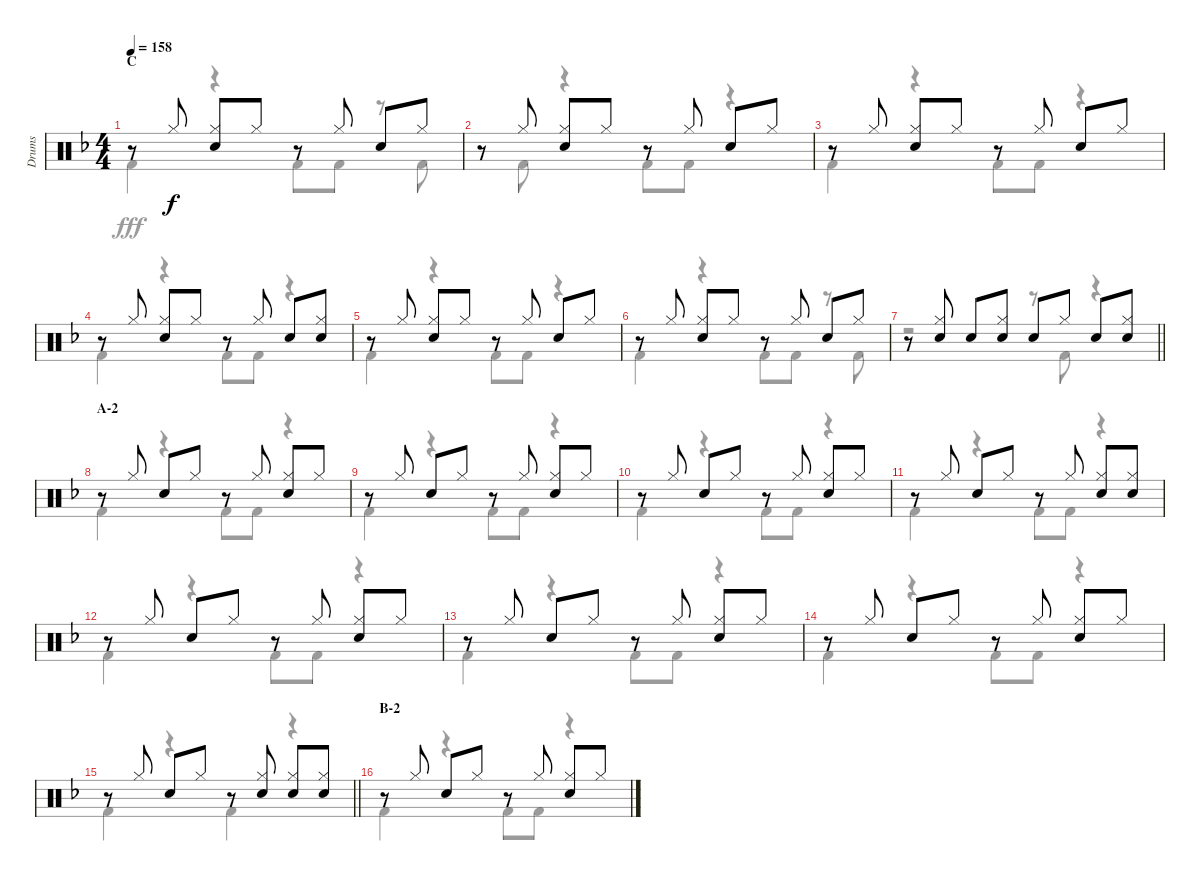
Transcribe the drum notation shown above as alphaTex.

\track ("Drums" "Drums") {instrument percussion}
\staff {score}
\articulation defaults
\voice
\ts (4 4)
\section ("" "C")
\tempo 158
\clef neutral
\ks f
r.8{dy f} "Hi-Hat (closed)".8 ("Hi-Hat (closed)" "Snare (hit) 2").8 "Hi-Hat (closed)".8 r.8 "Hi-Hat (closed)".8 "Snare (hit) 2".8 "Hi-Hat (closed)".8 |
r.8 "Hi-Hat (closed)".8 ("Hi-Hat (closed)" "Snare (hit) 2").8 "Hi-Hat (closed)".8 r.8 "Hi-Hat (closed)".8 "Snare (hit) 2".8 "Hi-Hat (closed)".8 |
r.8 "Hi-Hat (closed)".8 ("Hi-Hat (closed)" "Snare (hit) 2").8 "Hi-Hat (closed)".8 r.8 "Hi-Hat (closed)".8 "Snare (hit) 2".8 "Hi-Hat (closed)".8 |
r.8 "Hi-Hat (closed)".8 ("Hi-Hat (closed)" "Snare (hit) 2").8 "Hi-Hat (closed)".8 r.8 "Hi-Hat (closed)".8 "Snare (hit) 2".8 ("Hi-Hat (closed)" "Snare (hit) 2").8 |
r.8 "Hi-Hat (closed)".8 ("Hi-Hat (closed)" "Snare (hit) 2").8 "Hi-Hat (closed)".8 r.8 "Hi-Hat (closed)".8 "Snare (hit) 2".8 "Hi-Hat (closed)".8 |
r.8 "Hi-Hat (closed)".8 ("Hi-Hat (closed)" "Snare (hit) 2").8 "Hi-Hat (closed)".8 r.8 "Hi-Hat (closed)".8 "Snare (hit) 2".8 "Hi-Hat (closed)".8 |
\barLineRight lightlight
r.8 ("Hi-Hat (closed)" "Snare (hit) 2").8 "Snare (hit) 2".8 ("Hi-Hat (closed)" "Snare (hit) 2").8 "Snare (hit) 2".8 "Hi-Hat (closed)".8 "Snare (hit) 2".8 ("Hi-Hat (closed)" "Snare (hit) 2").8 |
\section ("" "A-2")
r.8 "Hi-Hat (closed)".8 "Snare (hit) 2".8 "Hi-Hat (closed)".8 r.8 "Hi-Hat (closed)".8 ("Hi-Hat (closed)" "Snare (hit) 2").8 "Hi-Hat (closed)".8 |
r.8 "Hi-Hat (closed)".8 "Snare (hit) 2".8 "Hi-Hat (closed)".8 r.8 "Hi-Hat (closed)".8 ("Hi-Hat (closed)" "Snare (hit) 2").8 "Hi-Hat (closed)".8 |
r.8 "Hi-Hat (closed)".8 "Snare (hit) 2".8 "Hi-Hat (closed)".8 r.8 "Hi-Hat (closed)".8 ("Hi-Hat (closed)" "Snare (hit) 2").8 "Hi-Hat (closed)".8 |
r.8 "Hi-Hat (closed)".8 "Snare (hit) 2".8 "Hi-Hat (closed)".8 r.8 "Hi-Hat (closed)".8 ("Hi-Hat (closed)" "Snare (hit) 2").8 ("Hi-Hat (closed)" "Snare (hit) 2").8 |
r.8 "Hi-Hat (closed)".8 "Snare (hit) 2".8 "Hi-Hat (closed)".8 r.8 "Hi-Hat (closed)".8 ("Hi-Hat (closed)" "Snare (hit) 2").8 "Hi-Hat (closed)".8 |
r.8 "Hi-Hat (closed)".8 "Snare (hit) 2".8 "Hi-Hat (closed)".8 r.8 "Hi-Hat (closed)".8 ("Hi-Hat (closed)" "Snare (hit) 2").8 "Hi-Hat (closed)".8 |
r.8 "Hi-Hat (closed)".8 "Snare (hit) 2".8 "Hi-Hat (closed)".8 r.8 "Hi-Hat (closed)".8 ("Hi-Hat (closed)" "Snare (hit) 2").8 "Hi-Hat (closed)".8 |
\barLineRight lightlight
r.8 "Hi-Hat (closed)".8 "Snare (hit) 2".8 "Hi-Hat (closed)".8 r.8 ("Hi-Hat (closed)" "Snare (hit) 2").8 ("Hi-Hat (closed)" "Snare (hit) 2").8 ("Hi-Hat (closed)" "Snare (hit) 2").8 |
\section ("" "B-2")
r.8 "Hi-Hat (closed)".8 "Snare (hit) 2".8 "Hi-Hat (closed)".8 r.8 "Hi-Hat (closed)".8 ("Hi-Hat (closed)" "Snare (hit) 2").8 "Hi-Hat (closed)".8
\voice
\clef neutral
\ottava regular
\simile none
\ks f "Kick (hit) 2".4{dy fff}
r.4 "Kick (hit) 2".8 "Kick (hit) 2".8 r.8 "Kick (hit) 2".8 |
r.8 "Kick (hit) 2".8 r.4 "Kick (hit) 2".8 "Kick (hit) 2".8 r.4 |
"Kick (hit) 2".4 r.4 "Kick (hit) 2".8 "Kick (hit) 2".8 r.4 |
"Kick (hit) 2".4 r.4 "Kick (hit) 2".8 "Kick (hit) 2".8 r.4 |
"Kick (hit) 2".4 r.4 "Kick (hit) 2".8 "Kick (hit) 2".8 r.4 |
"Kick (hit) 2".4 r.4 "Kick (hit) 2".8 "Kick (hit) 2".8 r.8 "Kick (hit) 2".8 |
\barLineRight lightlight
r.2 r.8 "Kick (hit) 2".8 r.4 |
"Kick (hit) 2".4 r.4 "Kick (hit) 2".8 "Kick (hit) 2".8 r.4 |
"Kick (hit) 2".4 r.4 "Kick (hit) 2".8 "Kick (hit) 2".8 r.4 |
"Kick (hit) 2".4 r.4 "Kick (hit) 2".8 "Kick (hit) 2".8 r.4 |
"Kick (hit) 2".4 r.4 "Kick (hit) 2".8 "Kick (hit) 2".8 r.4 |
"Kick (hit) 2".4 r.4 "Kick (hit) 2".8 "Kick (hit) 2".8 r.4 |
"Kick (hit) 2".4 r.4 "Kick (hit) 2".8 "Kick (hit) 2".8 r.4 |
"Kick (hit) 2".4 r.4 "Kick (hit) 2".8 "Kick (hit) 2".8 r.4 |
\barLineRight lightlight "Kick (hit) 2".4
r.4 "Kick (hit) 2".4 r.4 |
"Kick (hit) 2".4 r.4 "Kick (hit) 2".8 "Kick (hit) 2".8 r.4
